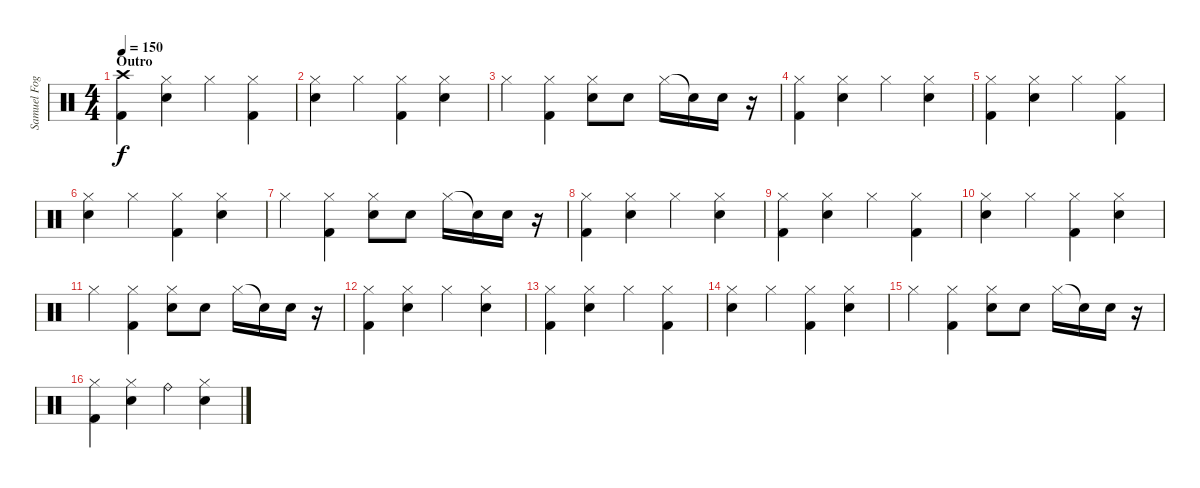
\track ("Samuel Fogarino" "Samuel Fog") {instrument percussion}
\staff {score}
\articulation defaults
\ts (4 4)
\section ("" "Outro")
\tempo 150
\clef neutral
\ks c
("Crash high (hit)" "Kick (hit) 2").4{dy f} ("Electric Snare (hit)" "Hi-Hat (closed)").4 "Hi-Hat (closed)".4 ("Kick (hit) 2" "Hi-Hat (closed)").4 |
("Electric Snare (hit)" "Hi-Hat (closed)").4 "Hi-Hat (closed)".4 ("Kick (hit) 2" "Hi-Hat (closed)").4 ("Electric Snare (hit)" "Hi-Hat (closed)").4 |
"Hi-Hat (closed)".4 ("Kick (hit) 2" "Hi-Hat (closed)").4 ("Electric Snare (hit)" "Hi-Hat (closed)").8 "Electric Snare (hit)".8 "Hi-Hat (closed)".16 "Snare (hit)"{t}.16 "Electric Snare (hit)".16 r.16 |
("Hi-Hat (closed)" "Kick (hit) 2").4 ("Electric Snare (hit)" "Hi-Hat (closed)").4 "Hi-Hat (closed)".4 ("Electric Snare (hit)" "Hi-Hat (closed)").4 |
("Hi-Hat (closed)" "Kick (hit) 2").4 ("Electric Snare (hit)" "Hi-Hat (closed)").4 "Hi-Hat (closed)".4 ("Kick (hit) 2" "Hi-Hat (closed)").4 |
("Electric Snare (hit)" "Hi-Hat (closed)").4 "Hi-Hat (closed)".4 ("Kick (hit) 2" "Hi-Hat (closed)").4 ("Electric Snare (hit)" "Hi-Hat (closed)").4 |
"Hi-Hat (closed)".4 ("Kick (hit) 2" "Hi-Hat (closed)").4 ("Electric Snare (hit)" "Hi-Hat (closed)").8 "Electric Snare (hit)".8 "Hi-Hat (closed)".16 "Snare (hit)"{t}.16 "Electric Snare (hit)".16 r.16 |
("Hi-Hat (closed)" "Kick (hit) 2").4 ("Electric Snare (hit)" "Hi-Hat (closed)").4 "Hi-Hat (closed)".4 ("Electric Snare (hit)" "Hi-Hat (closed)").4 |
("Hi-Hat (closed)" "Kick (hit) 2").4 ("Electric Snare (hit)" "Hi-Hat (closed)").4 "Hi-Hat (closed)".4 ("Kick (hit) 2" "Hi-Hat (closed)").4 |
("Electric Snare (hit)" "Hi-Hat (closed)").4 "Hi-Hat (closed)".4 ("Kick (hit) 2" "Hi-Hat (closed)").4 ("Electric Snare (hit)" "Hi-Hat (closed)").4 |
"Hi-Hat (closed)".4 ("Kick (hit) 2" "Hi-Hat (closed)").4 ("Electric Snare (hit)" "Hi-Hat (closed)").8 "Electric Snare (hit)".8 "Hi-Hat (closed)".16 "Snare (hit)"{t}.16 "Electric Snare (hit)".16 r.16 |
("Hi-Hat (closed)" "Kick (hit) 2").4 ("Electric Snare (hit)" "Hi-Hat (closed)").4 "Hi-Hat (closed)".4 ("Electric Snare (hit)" "Hi-Hat (closed)").4 |
("Hi-Hat (closed)" "Kick (hit) 2").4 ("Electric Snare (hit)" "Hi-Hat (closed)").4 "Hi-Hat (closed)".4 ("Kick (hit) 2" "Hi-Hat (closed)").4 |
("Electric Snare (hit)" "Hi-Hat (closed)").4 "Hi-Hat (closed)".4 ("Kick (hit) 2" "Hi-Hat (closed)").4 ("Electric Snare (hit)" "Hi-Hat (closed)").4 |
"Hi-Hat (closed)".4 ("Kick (hit) 2" "Hi-Hat (closed)").4 ("Electric Snare (hit)" "Hi-Hat (closed)").8 "Electric Snare (hit)".8 "Hi-Hat (closed)".16 "Snare (hit)"{t}.16 "Electric Snare (hit)".16 r.16 |
("Hi-Hat (closed)" "Kick (hit) 2").4 ("Electric Snare (hit)" "Hi-Hat (closed)").4 "Ride (bell)".4 ("Electric Snare (hit)" "Hi-Hat (closed)").4
